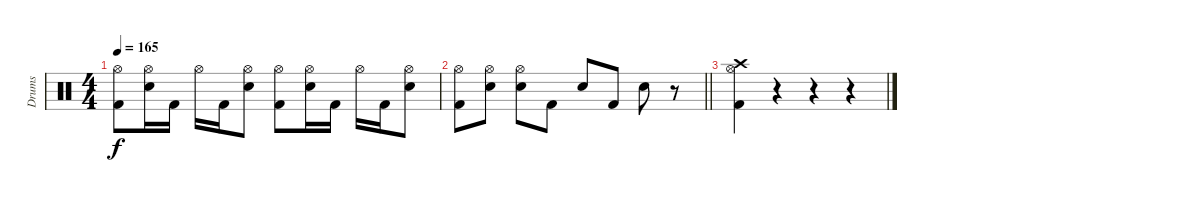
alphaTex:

\track ("Drums" "Drums") {instrument percussion}
\staff {score}
\articulation defaults
\ts (4 4)
\tempo 165
\clef neutral
\ks c
("Hi-Hat (open)" "Kick (hit) 2").8{dy f} ("Hi-Hat (open)" "Electric Snare (hit)").16 "Kick (hit) 2".16 "Hi-Hat (open)".16 "Kick (hit) 2".16 ("Hi-Hat (open)" "Electric Snare (hit)").8 ("Hi-Hat (open)" "Kick (hit) 2").8 ("Hi-Hat (open)" "Electric Snare (hit)").16 "Kick (hit) 2".16 "Hi-Hat (open)".16 "Kick (hit) 2".16 ("Hi-Hat (open)" "Electric Snare (hit)").8 |
\barLineRight lightlight
("Hi-Hat (open)" "Kick (hit) 2").8 ("Hi-Hat (open)" "Electric Snare (hit)").8 ("Hi-Hat (open)" "Electric Snare (hit)").8 "Kick (hit) 2".8 "Electric Snare (hit)".8 "Kick (hit) 2".8 "Electric Snare (hit)".8 r.8 |
("Crash high (hit)" "Hi-Hat (open)" "Kick (hit) 2").4 r.4 r.4 r.4
